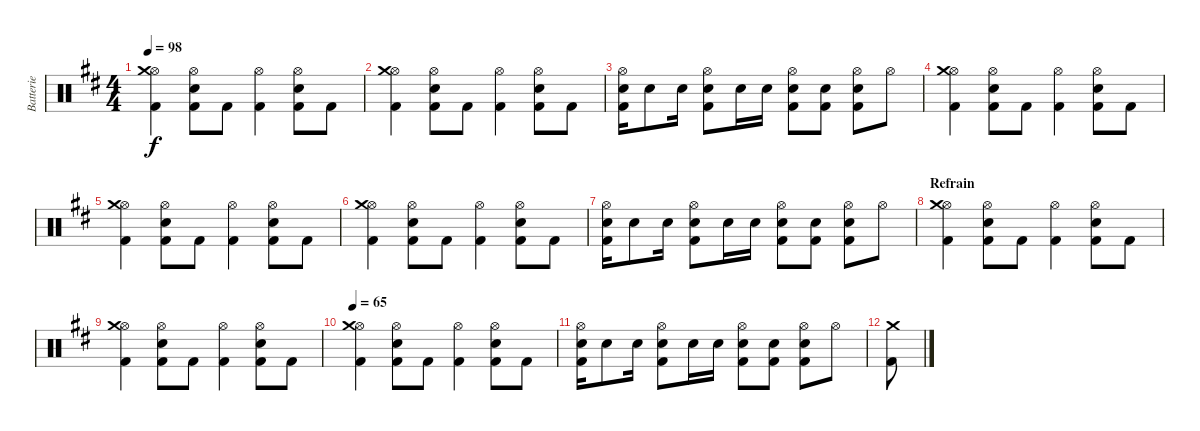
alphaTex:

\track ("Batterie" "Batterie") {instrument percussion}
\staff {score}
\articulation defaults
\ts (4 4)
\tempo 98
\clef neutral
\ks d
("Hi-Hat (open)" "Crash medium (hit)" "Kick (hit) 2").4{dy f} ("Hi-Hat (open)" "Snare (hit) 2" "Kick (hit) 2").8 "Kick (hit) 2".8 ("Hi-Hat (open)" "Kick (hit) 2").4 ("Hi-Hat (open)" "Snare (hit) 2" "Kick (hit) 2").8 "Kick (hit) 2".8 |
("Hi-Hat (open)" "Crash medium (hit)" "Kick (hit) 2").4 ("Hi-Hat (open)" "Snare (hit) 2" "Kick (hit) 2").8 "Kick (hit) 2".8 ("Hi-Hat (open)" "Kick (hit) 2").4 ("Hi-Hat (open)" "Snare (hit) 2" "Kick (hit) 2").8 "Kick (hit) 2".8 |
("Hi-Hat (open)" "Snare (hit) 2" "Kick (hit) 2").16 "Snare (hit) 2".8 "Snare (hit) 2".16 ("Hi-Hat (open)" "Snare (hit) 2" "Kick (hit) 2").8 "Snare (hit) 2".16 "Snare (hit) 2".16 ("Hi-Hat (open)" "Snare (hit) 2" "Kick (hit) 2").8 ("Snare (hit) 2" "Kick (hit) 2").8 ("Hi-Hat (open)" "Snare (hit) 2" "Kick (hit) 2").8 "Hi-Hat (open)".8 |
("Hi-Hat (open)" "Crash medium (hit)" "Kick (hit) 2").4 ("Hi-Hat (open)" "Snare (hit) 2" "Kick (hit) 2").8 "Kick (hit) 2".8 ("Hi-Hat (open)" "Kick (hit) 2").4 ("Hi-Hat (open)" "Snare (hit) 2" "Kick (hit) 2").8 "Kick (hit) 2".8 |
("Hi-Hat (open)" "Crash medium (hit)" "Kick (hit) 2").4 ("Hi-Hat (open)" "Snare (hit) 2" "Kick (hit) 2").8 "Kick (hit) 2".8 ("Hi-Hat (open)" "Kick (hit) 2").4 ("Hi-Hat (open)" "Snare (hit) 2" "Kick (hit) 2").8 "Kick (hit) 2".8 |
("Hi-Hat (open)" "Crash medium (hit)" "Kick (hit) 2").4 ("Hi-Hat (open)" "Snare (hit) 2" "Kick (hit) 2").8 "Kick (hit) 2".8 ("Hi-Hat (open)" "Kick (hit) 2").4 ("Hi-Hat (open)" "Snare (hit) 2" "Kick (hit) 2").8 "Kick (hit) 2".8 |
("Hi-Hat (open)" "Snare (hit) 2" "Kick (hit) 2").16 "Snare (hit) 2".8 "Snare (hit) 2".16 ("Hi-Hat (open)" "Snare (hit) 2" "Kick (hit) 2").8 "Snare (hit) 2".16 "Snare (hit) 2".16 ("Hi-Hat (open)" "Snare (hit) 2" "Kick (hit) 2").8 ("Snare (hit) 2" "Kick (hit) 2").8 ("Hi-Hat (open)" "Snare (hit) 2" "Kick (hit) 2").8 "Hi-Hat (open)".8 |
\section ("" "Refrain")
("Hi-Hat (open)" "Crash medium (hit)" "Kick (hit) 2").4 ("Hi-Hat (open)" "Snare (hit) 2" "Kick (hit) 2").8 "Kick (hit) 2".8 ("Hi-Hat (open)" "Kick (hit) 2").4 ("Hi-Hat (open)" "Snare (hit) 2" "Kick (hit) 2").8 "Kick (hit) 2".8 |
("Hi-Hat (open)" "Crash medium (hit)" "Kick (hit) 2").4 ("Hi-Hat (open)" "Snare (hit) 2" "Kick (hit) 2").8 "Kick (hit) 2".8 ("Hi-Hat (open)" "Kick (hit) 2").4 ("Hi-Hat (open)" "Snare (hit) 2" "Kick (hit) 2").8 "Kick (hit) 2".8 |
\tempo 65
("Hi-Hat (open)" "Crash medium (hit)" "Kick (hit) 2").4 ("Hi-Hat (open)" "Snare (hit) 2" "Kick (hit) 2").8 "Kick (hit) 2".8 ("Hi-Hat (open)" "Kick (hit) 2").4 ("Hi-Hat (open)" "Snare (hit) 2" "Kick (hit) 2").8 "Kick (hit) 2".8 |
("Hi-Hat (open)" "Snare (hit) 2" "Kick (hit) 2").16 "Snare (hit) 2".8 "Snare (hit) 2".16 ("Hi-Hat (open)" "Snare (hit) 2" "Kick (hit) 2").8 "Snare (hit) 2".16 "Snare (hit) 2".16 ("Hi-Hat (open)" "Snare (hit) 2" "Kick (hit) 2").8 ("Snare (hit) 2" "Kick (hit) 2").8 ("Hi-Hat (open)" "Snare (hit) 2" "Kick (hit) 2").8 "Hi-Hat (open)".8 |
("Crash medium (hit)" "Kick (hit) 2").8
